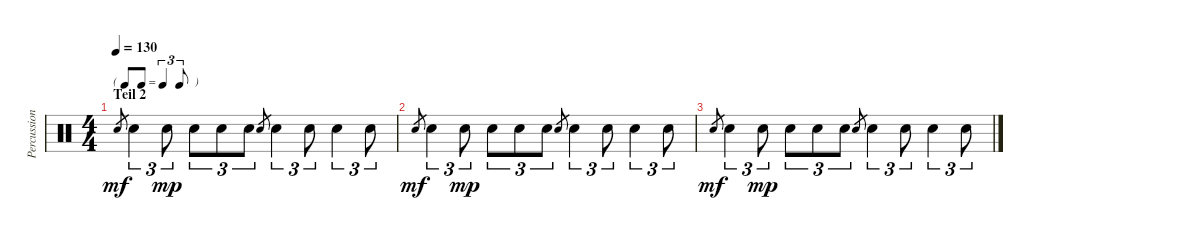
\track ("Percussion" "Percussion") {instrument percussion}
\staff {score}
\articulation defaults
\ts (4 4)
\tf triplet8th
\section ("" "Teil 2")
\tempo 130
\clef neutral
\ks c "Electric Snare (hit)".8{gr dy mf} "Electric Snare (hit)".4{tu (3 2)} "Electric Snare (hit)".8{tu (3 2) dy mp} "Electric Snare (hit)".8{tu (3 2)} "Electric Snare (hit)".8{tu (3 2)} "Electric Snare (hit)".8{tu (3 2)} "Electric Snare (hit)".8{gr} "Electric Snare (hit)".4{tu (3 2)} "Electric Snare (hit)".8{tu (3 2)} "Electric Snare (hit)".4{tu (3 2)} "Electric Snare (hit)".8{tu (3 2)}
|
"Electric Snare (hit)".8{gr dy mf} "Electric Snare (hit)".4{tu (3 2)} "Electric Snare (hit)".8{tu (3 2) dy mp} "Electric Snare (hit)".8{tu (3 2)} "Electric Snare (hit)".8{tu (3 2)} "Electric Snare (hit)".8{tu (3 2)} "Electric Snare (hit)".8{gr} "Electric Snare (hit)".4{tu (3 2)} "Electric Snare (hit)".8{tu (3 2)} "Electric Snare (hit)".4{tu (3 2)} "Electric Snare (hit)".8{tu (3 2)} |
"Electric Snare (hit)".8{gr dy mf} "Electric Snare (hit)".4{tu (3 2)} "Electric Snare (hit)".8{tu (3 2) dy mp} "Electric Snare (hit)".8{tu (3 2)} "Electric Snare (hit)".8{tu (3 2)} "Electric Snare (hit)".8{tu (3 2)} "Electric Snare (hit)".8{gr} "Electric Snare (hit)".4{tu (3 2)} "Electric Snare (hit)".8{tu (3 2)} "Electric Snare (hit)".4{tu (3 2)} "Electric Snare (hit)".8{tu (3 2)}
